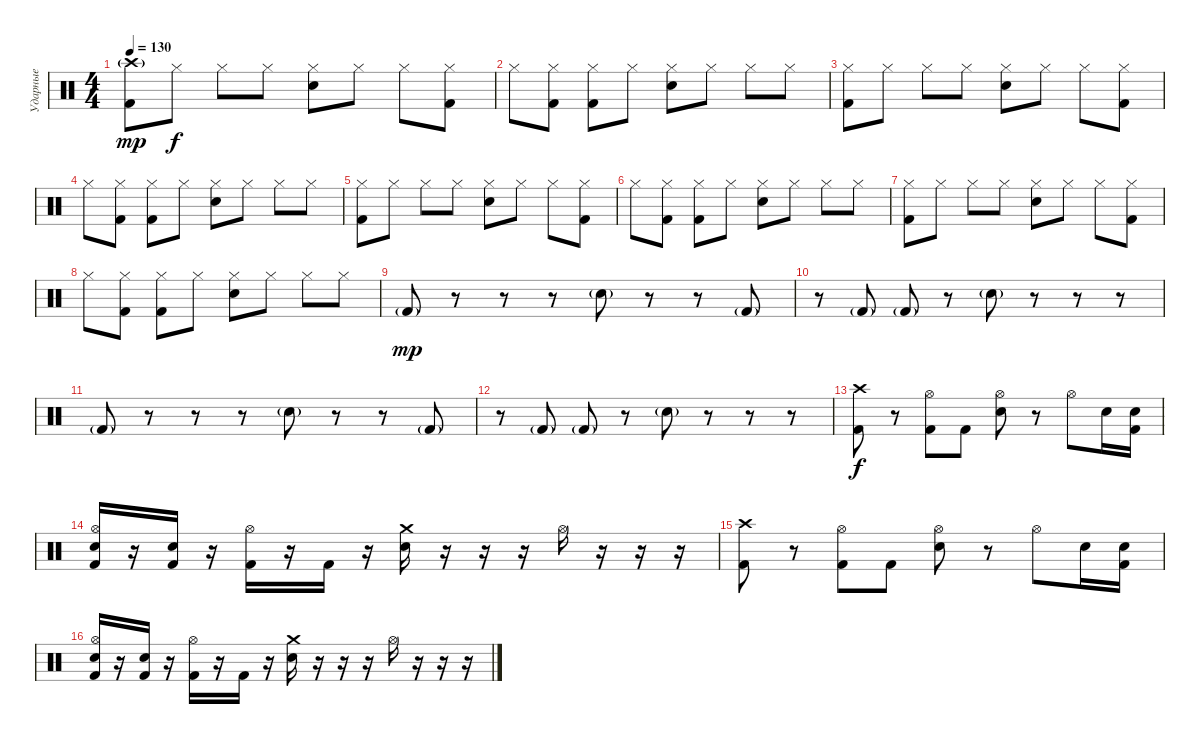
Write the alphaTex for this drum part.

\track ("Ударные" "Ударные") {instrument percussion}
\staff {score}
\articulation defaults
\ts (4 4)
\tempo 130
\clef neutral
\ks c
("Kick (hit) 2" "Crash high (hit)"{g}).8{dy mp} "Hi-Hat (closed)".8{dy f} "Hi-Hat (closed)".8 "Hi-Hat (closed)".8 ("Snare (hit) 2" "Hi-Hat (closed)").8 "Hi-Hat (closed)".8 "Hi-Hat (closed)".8 ("Kick (hit) 2" "Hi-Hat (closed)").8 |
"Hi-Hat (closed)".8 ("Kick (hit) 2" "Hi-Hat (closed)").8 ("Kick (hit) 2" "Hi-Hat (closed)").8 "Hi-Hat (closed)".8 ("Snare (hit) 2" "Hi-Hat (closed)").8 "Hi-Hat (closed)".8 "Hi-Hat (closed)".8 "Hi-Hat (closed)".8 |
("Kick (hit) 2" "Hi-Hat (closed)").8 "Hi-Hat (closed)".8 "Hi-Hat (closed)".8 "Hi-Hat (closed)".8 ("Snare (hit) 2" "Hi-Hat (closed)").8 "Hi-Hat (closed)".8 "Hi-Hat (closed)".8 ("Kick (hit) 2" "Hi-Hat (closed)").8 |
"Hi-Hat (closed)".8 ("Kick (hit) 2" "Hi-Hat (closed)").8 ("Kick (hit) 2" "Hi-Hat (closed)").8 "Hi-Hat (closed)".8 ("Snare (hit) 2" "Hi-Hat (closed)").8 "Hi-Hat (closed)".8 "Hi-Hat (closed)".8 "Hi-Hat (closed)".8 |
("Kick (hit) 2" "Hi-Hat (closed)").8 "Hi-Hat (closed)".8 "Hi-Hat (closed)".8 "Hi-Hat (closed)".8 ("Snare (hit) 2" "Hi-Hat (closed)").8 "Hi-Hat (closed)".8 "Hi-Hat (closed)".8 ("Kick (hit) 2" "Hi-Hat (closed)").8 |
"Hi-Hat (closed)".8 ("Kick (hit) 2" "Hi-Hat (closed)").8 ("Kick (hit) 2" "Hi-Hat (closed)").8 "Hi-Hat (closed)".8 ("Snare (hit) 2" "Hi-Hat (closed)").8 "Hi-Hat (closed)".8 "Hi-Hat (closed)".8 "Hi-Hat (closed)".8 |
("Kick (hit) 2" "Hi-Hat (closed)").8 "Hi-Hat (closed)".8 "Hi-Hat (closed)".8 "Hi-Hat (closed)".8 ("Snare (hit) 2" "Hi-Hat (closed)").8 "Hi-Hat (closed)".8 "Hi-Hat (closed)".8 ("Kick (hit) 2" "Hi-Hat (closed)").8 |
"Hi-Hat (closed)".8 ("Kick (hit) 2" "Hi-Hat (closed)").8 ("Kick (hit) 2" "Hi-Hat (closed)").8 "Hi-Hat (closed)".8 ("Snare (hit) 2" "Hi-Hat (closed)").8 "Hi-Hat (closed)".8 "Hi-Hat (closed)".8 "Hi-Hat (closed)".8 |
"Kick (hit) 2"{g}.8{dy mp} r.8 r.8 r.8 "Snare (hit) 2"{g}.8 r.8 r.8 "Kick (hit) 2"{g}.8 |
r.8 "Kick (hit) 2"{g}.8 "Kick (hit) 2"{g}.8 r.8 "Snare (hit) 2"{g}.8 r.8 r.8 r.8 |
"Kick (hit) 2"{g}.8 r.8 r.8 r.8 "Snare (hit) 2"{g}.8 r.8 r.8 "Kick (hit) 2"{g}.8 |
r.8 "Kick (hit) 2"{g}.8 "Kick (hit) 2"{g}.8 r.8 "Snare (hit) 2"{g}.8 r.8 r.8 r.8 |
("Kick (hit) 2" "Crash high (hit)").8{dy f} r.8 ("Kick (hit) 2" "Hi-Hat (open)").8 "Kick (hit) 2".8 ("Electric Snare (hit)" "Hi-Hat (open)").8 r.8 "Hi-Hat (open)".8 "Electric Snare (hit)".16 ("Kick (hit) 2" "Electric Snare (hit)").16 |
("Kick (hit) 2" "Electric Snare (hit)" "Hi-Hat (open)").16 r.16 ("Kick (hit) 2" "Electric Snare (hit)").16 r.16 ("Kick (hit) 2" "Hi-Hat (open)").16 r.16 "Kick (hit) 2".16 r.16 ("Electric Snare (hit)" "Crash medium (hit)").16 r.16 r.16 r.16 "Hi-Hat (open)".16 r.16 r.16 r.16 |
("Kick (hit) 2" "Crash high (hit)").8 r.8 ("Kick (hit) 2" "Hi-Hat (open)").8 "Kick (hit) 2".8 ("Electric Snare (hit)" "Hi-Hat (open)").8 r.8 "Hi-Hat (open)".8 "Electric Snare (hit)".16 ("Kick (hit) 2" "Electric Snare (hit)").16 |
("Kick (hit) 2" "Electric Snare (hit)" "Hi-Hat (open)").16 r.16 ("Kick (hit) 2" "Electric Snare (hit)").16 r.16 ("Kick (hit) 2" "Hi-Hat (open)").16 r.16 "Kick (hit) 2".16 r.16 ("Electric Snare (hit)" "Crash medium (hit)").16 r.16 r.16 r.16 "Hi-Hat (open)".16 r.16 r.16 r.16
